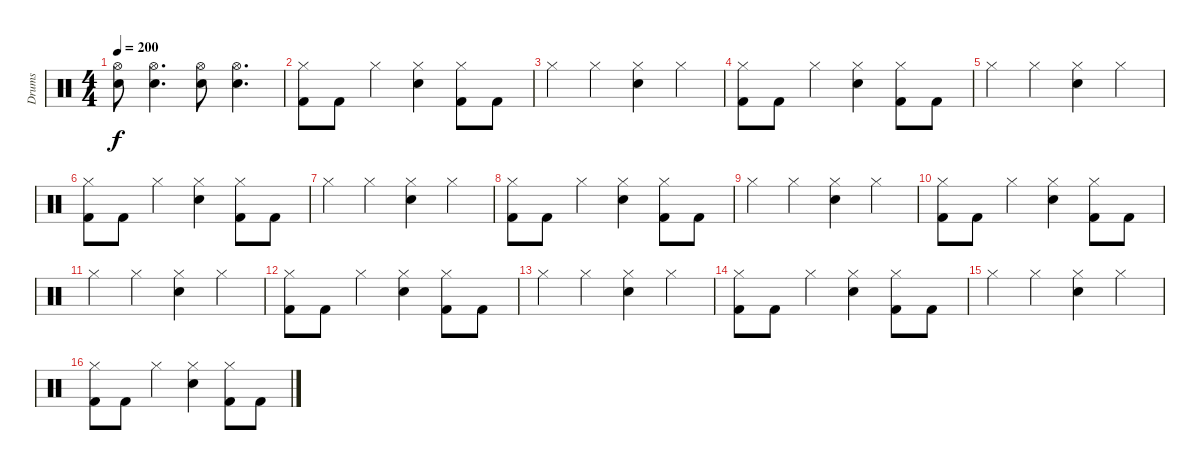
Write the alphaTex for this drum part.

\track ("Drums" "Drums") {instrument percussion}
\staff {score}
\articulation defaults
\ts (4 4)
\tempo 200
\clef neutral
\ks c
("Hi-Hat (open)" "Snare (hit) 2").8{dy f} ("Hi-Hat (open)" "Snare (hit) 2").4{d} ("Hi-Hat (open)" "Snare (hit) 2").8 ("Hi-Hat (open)" "Snare (hit) 2").4{d} |
("Hi-Hat (closed)" "Kick (hit) 2").8 "Kick (hit) 2".8 "Hi-Hat (closed)".4 ("Hi-Hat (closed)" "Snare (hit) 2").4 ("Hi-Hat (closed)" "Kick (hit) 2").8 "Kick (hit) 2".8 |
"Hi-Hat (closed)".4 "Hi-Hat (closed)".4 ("Hi-Hat (closed)" "Snare (hit) 2").4 "Hi-Hat (closed)".4 |
("Hi-Hat (closed)" "Kick (hit) 2").8 "Kick (hit) 2".8 "Hi-Hat (closed)".4 ("Hi-Hat (closed)" "Snare (hit) 2").4 ("Hi-Hat (closed)" "Kick (hit) 2").8 "Kick (hit) 2".8 |
"Hi-Hat (closed)".4 "Hi-Hat (closed)".4 ("Hi-Hat (closed)" "Snare (hit) 2").4 "Hi-Hat (closed)".4 |
("Hi-Hat (closed)" "Kick (hit) 2").8 "Kick (hit) 2".8 "Hi-Hat (closed)".4 ("Hi-Hat (closed)" "Snare (hit) 2").4 ("Hi-Hat (closed)" "Kick (hit) 2").8 "Kick (hit) 2".8 |
"Hi-Hat (closed)".4 "Hi-Hat (closed)".4 ("Hi-Hat (closed)" "Snare (hit) 2").4 "Hi-Hat (closed)".4 |
("Hi-Hat (closed)" "Kick (hit) 2").8 "Kick (hit) 2".8 "Hi-Hat (closed)".4 ("Hi-Hat (closed)" "Snare (hit) 2").4 ("Hi-Hat (closed)" "Kick (hit) 2").8 "Kick (hit) 2".8 |
"Hi-Hat (closed)".4 "Hi-Hat (closed)".4 ("Hi-Hat (closed)" "Snare (hit) 2").4 "Hi-Hat (closed)".4 |
("Hi-Hat (closed)" "Kick (hit) 2").8 "Kick (hit) 2".8 "Hi-Hat (closed)".4 ("Hi-Hat (closed)" "Snare (hit) 2").4 ("Hi-Hat (closed)" "Kick (hit) 2").8 "Kick (hit) 2".8 |
"Hi-Hat (closed)".4 "Hi-Hat (closed)".4 ("Hi-Hat (closed)" "Snare (hit) 2").4 "Hi-Hat (closed)".4 |
("Hi-Hat (closed)" "Kick (hit) 2").8 "Kick (hit) 2".8 "Hi-Hat (closed)".4 ("Hi-Hat (closed)" "Snare (hit) 2").4 ("Hi-Hat (closed)" "Kick (hit) 2").8 "Kick (hit) 2".8 |
"Hi-Hat (closed)".4 "Hi-Hat (closed)".4 ("Hi-Hat (closed)" "Snare (hit) 2").4 "Hi-Hat (closed)".4 |
("Hi-Hat (closed)" "Kick (hit) 2").8 "Kick (hit) 2".8 "Hi-Hat (closed)".4 ("Hi-Hat (closed)" "Snare (hit) 2").4 ("Hi-Hat (closed)" "Kick (hit) 2").8 "Kick (hit) 2".8 |
"Hi-Hat (closed)".4 "Hi-Hat (closed)".4 ("Hi-Hat (closed)" "Snare (hit) 2").4 "Hi-Hat (closed)".4 |
("Hi-Hat (closed)" "Kick (hit) 2").8 "Kick (hit) 2".8 "Hi-Hat (closed)".4 ("Hi-Hat (closed)" "Snare (hit) 2").4 ("Hi-Hat (closed)" "Kick (hit) 2").8 "Kick (hit) 2".8
